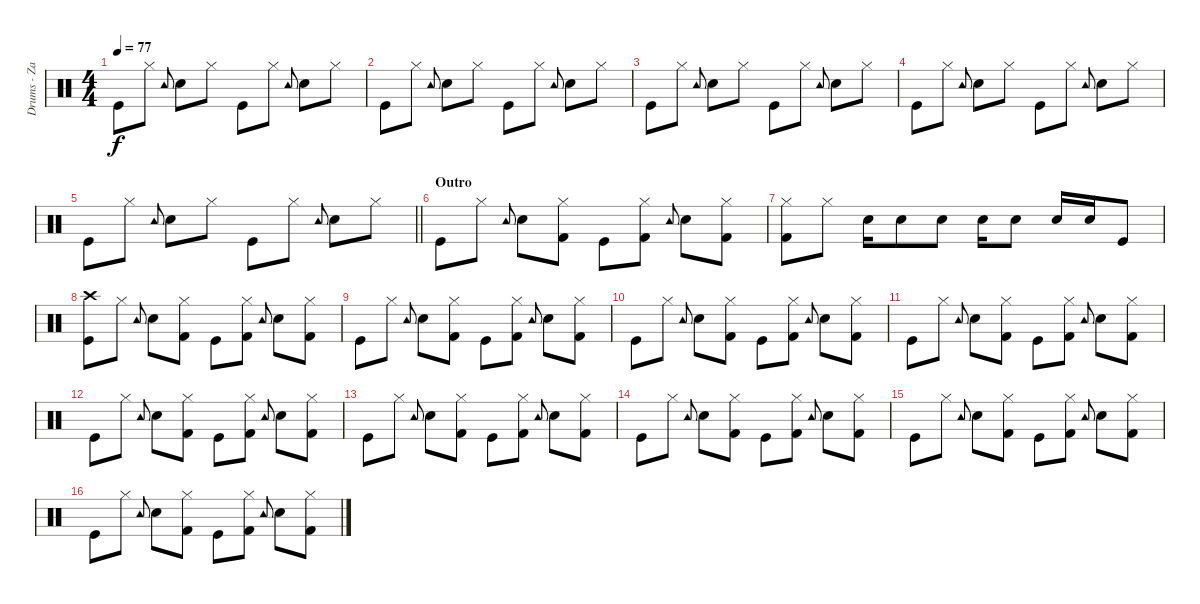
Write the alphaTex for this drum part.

\track ("Drums - Zakk Starkey" "Drums - Za") {instrument percussion}
\staff {score}
\articulation defaults
\ts (4 4)
\tempo 77
\clef neutral
\ks c "Kick (hit)".8{dy f} "Hi-Hat (closed)".8 "Tambourine (hit)".8{gr onbeat} "Snare (hit) 2".8 "Hi-Hat (closed)".8 "Kick (hit)".8 "Hi-Hat (closed)".8 "Tambourine (hit)".8{gr onbeat} "Snare (hit) 2".8 "Hi-Hat (closed)".8
|
"Kick (hit)".8 "Hi-Hat (closed)".8 "Tambourine (hit)".8{gr onbeat} "Snare (hit) 2".8 "Hi-Hat (closed)".8 "Kick (hit)".8 "Hi-Hat (closed)".8 "Tambourine (hit)".8{gr onbeat} "Snare (hit) 2".8 "Hi-Hat (closed)".8 |
"Kick (hit)".8 "Hi-Hat (closed)".8 "Tambourine (hit)".8{gr onbeat} "Snare (hit) 2".8 "Hi-Hat (closed)".8 "Kick (hit)".8 "Hi-Hat (closed)".8 "Tambourine (hit)".8{gr onbeat} "Snare (hit) 2".8 "Hi-Hat (closed)".8 |
"Kick (hit)".8 "Hi-Hat (closed)".8 "Tambourine (hit)".8{gr onbeat} "Snare (hit) 2".8 "Hi-Hat (closed)".8 "Kick (hit)".8 "Hi-Hat (closed)".8 "Tambourine (hit)".8{gr onbeat} "Snare (hit) 2".8 "Hi-Hat (closed)".8 |
\barLineRight lightlight "Kick (hit)".8 "Hi-Hat (closed)".8 "Tambourine (hit)".8{gr onbeat} "Snare (hit) 2".8 "Hi-Hat (closed)".8 "Kick (hit)".8 "Hi-Hat (closed)".8 "Tambourine (hit)".8{gr onbeat} "Snare (hit) 2".8 "Hi-Hat (closed)".8
|
\section ("" "Outro")
"Kick (hit)".8 "Hi-Hat (closed)".8 "Tambourine (hit)".8{gr onbeat} "Snare (hit) 2".8 ("Hi-Hat (closed)" "Kick (hit) 2").8 "Kick (hit)".8 ("Hi-Hat (closed)" "Kick (hit) 2").8 "Tambourine (hit)".8{gr onbeat} "Snare (hit) 2".8 ("Hi-Hat (closed)" "Kick (hit) 2").8 |
("Hi-Hat (closed)" "Kick (hit) 2").8 "Hi-Hat (closed)".8 "Snare (hit) 2".16 "Snare (hit) 2".8 "Snare (hit) 2".8 "Snare (hit) 2".16 "Snare (hit) 2".8 "Snare (hit) 2".16 "Snare (hit) 2".16 "Kick (hit)".8 |
("Crash high (hit)" "Kick (hit)").8 "Hi-Hat (closed)".8 "Tambourine (hit)".8{gr onbeat} "Snare (hit) 2".8 ("Hi-Hat (closed)" "Kick (hit) 2").8 "Kick (hit)".8 ("Hi-Hat (closed)" "Kick (hit) 2").8 "Tambourine (hit)".8{gr onbeat} "Snare (hit) 2".8 ("Hi-Hat (closed)" "Kick (hit) 2").8 |
"Kick (hit)".8 "Hi-Hat (closed)".8 "Tambourine (hit)".8{gr onbeat} "Snare (hit) 2".8 ("Hi-Hat (closed)" "Kick (hit) 2").8 "Kick (hit)".8 ("Hi-Hat (closed)" "Kick (hit) 2").8 "Tambourine (hit)".8{gr onbeat} "Snare (hit) 2".8 ("Hi-Hat (closed)" "Kick (hit) 2").8 |
"Kick (hit)".8 "Hi-Hat (closed)".8 "Tambourine (hit)".8{gr onbeat} "Snare (hit) 2".8 ("Hi-Hat (closed)" "Kick (hit) 2").8 "Kick (hit)".8 ("Hi-Hat (closed)" "Kick (hit) 2").8 "Tambourine (hit)".8{gr onbeat} "Snare (hit) 2".8 ("Hi-Hat (closed)" "Kick (hit) 2").8 |
"Kick (hit)".8 "Hi-Hat (closed)".8 "Tambourine (hit)".8{gr onbeat} "Snare (hit) 2".8 ("Hi-Hat (closed)" "Kick (hit) 2").8 "Kick (hit)".8 ("Hi-Hat (closed)" "Kick (hit) 2").8 "Tambourine (hit)".8{gr onbeat} "Snare (hit) 2".8 ("Hi-Hat (closed)" "Kick (hit) 2").8 |
"Kick (hit)".8 "Hi-Hat (closed)".8 "Tambourine (hit)".8{gr onbeat} "Snare (hit) 2".8 ("Hi-Hat (closed)" "Kick (hit) 2").8 "Kick (hit)".8 ("Hi-Hat (closed)" "Kick (hit) 2").8 "Tambourine (hit)".8{gr onbeat} "Snare (hit) 2".8 ("Hi-Hat (closed)" "Kick (hit) 2").8 |
"Kick (hit)".8 "Hi-Hat (closed)".8 "Tambourine (hit)".8{gr onbeat} "Snare (hit) 2".8 ("Hi-Hat (closed)" "Kick (hit) 2").8 "Kick (hit)".8 ("Hi-Hat (closed)" "Kick (hit) 2").8 "Tambourine (hit)".8{gr onbeat} "Snare (hit) 2".8 ("Hi-Hat (closed)" "Kick (hit) 2").8 |
"Kick (hit)".8 "Hi-Hat (closed)".8 "Tambourine (hit)".8{gr onbeat} "Snare (hit) 2".8 ("Hi-Hat (closed)" "Kick (hit) 2").8 "Kick (hit)".8 ("Hi-Hat (closed)" "Kick (hit) 2").8 "Tambourine (hit)".8{gr onbeat} "Snare (hit) 2".8 ("Hi-Hat (closed)" "Kick (hit) 2").8 |
"Kick (hit)".8 "Hi-Hat (closed)".8 "Tambourine (hit)".8{gr onbeat} "Snare (hit) 2".8 ("Hi-Hat (closed)" "Kick (hit) 2").8 "Kick (hit)".8 ("Hi-Hat (closed)" "Kick (hit) 2").8 "Tambourine (hit)".8{gr onbeat} "Snare (hit) 2".8 ("Hi-Hat (closed)" "Kick (hit) 2").8 |
"Kick (hit)".8 "Hi-Hat (closed)".8 "Tambourine (hit)".8{gr onbeat} "Snare (hit) 2".8 ("Hi-Hat (closed)" "Kick (hit) 2").8 "Kick (hit)".8 ("Hi-Hat (closed)" "Kick (hit) 2").8 "Tambourine (hit)".8{gr onbeat} "Snare (hit) 2".8 ("Hi-Hat (closed)" "Kick (hit) 2").8
